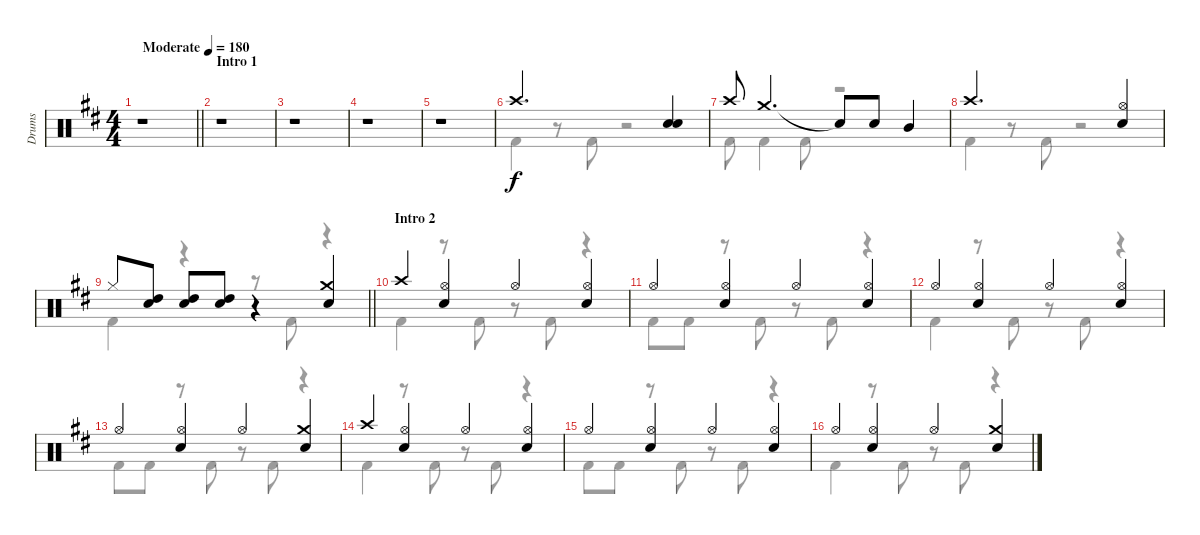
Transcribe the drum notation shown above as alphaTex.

\track ("Drums" "Drums") {instrument percussion}
\staff {score}
\articulation defaults
\voice
\ts (4 4)
\tempo (180 "Moderate")
\clef neutral
\barLineRight lightlight
\ks d
r.1{dy f} |
\section ("" "Intro 1")
r.1 |
r.1 |
r.1 |
r.1 |
"Crash high (hit)".2{d} ("Snare (hit) 2" "Snare (hit) 2").4 |
"Crash high (hit)".8 "Crash medium (hit)".4{d} "Snare (hit)"{t}.8 "Snare (hit) 2".8 "Mid Tom (hit)".4 |
"Crash high (hit)".2{d} ("Hi-Hat (open)" "Snare (hit) 2").4 |
\barLineRight lightlight "Hi-Hat (closed)".8
("High Tom (hit)" "Snare (hit) 2").8 ("High Tom (hit)" "Snare (hit) 2").8 ("High Tom (hit)" "Snare (hit) 2").8 r.4 ("Crash medium (hit)" "Snare (hit) 2").4 |
\section ("" "Intro 2")
"Crash high (hit)".4 ("Hi-Hat (open)" "Snare (hit) 2").4 "Hi-Hat (open)".4 ("Hi-Hat (open)" "Snare (hit) 2").4 |
"Hi-Hat (open)".4 ("Hi-Hat (open)" "Snare (hit) 2").4 "Hi-Hat (open)".4 ("Hi-Hat (open)" "Snare (hit) 2").4 |
"Hi-Hat (open)".4 ("Hi-Hat (open)" "Snare (hit) 2").4 "Hi-Hat (open)".4 ("Hi-Hat (open)" "Snare (hit) 2").4 |
"Hi-Hat (open)".4 ("Hi-Hat (open)" "Snare (hit) 2").4 "Hi-Hat (open)".4 ("Crash medium (hit)" "Snare (hit) 2").4 |
"Crash high (hit)".4 ("Hi-Hat (open)" "Snare (hit) 2").4 "Hi-Hat (open)".4 ("Hi-Hat (open)" "Snare (hit) 2").4 |
"Hi-Hat (open)".4 ("Hi-Hat (open)" "Snare (hit) 2").4 "Hi-Hat (open)".4 ("Hi-Hat (open)" "Snare (hit) 2").4 |
"Hi-Hat (open)".4 ("Hi-Hat (open)" "Snare (hit) 2").4 "Hi-Hat (open)".4 ("Crash medium (hit)" "Snare (hit) 2").4
\voice
\clef neutral
\ottava regular
\simile none
\barLineRight lightlight
\ks d
r.1{dy f} |
r.1 |
r.1 |
r.1 |
r.1 |
"Kick (hit) 2".4 r.8 "Kick (hit) 2".8 r.2 |
"Kick (hit) 2".8 "Kick (hit) 2".4 "Kick (hit) 2".8 r.2 |
"Kick (hit) 2".4 r.8 "Kick (hit) 2".8 r.2 |
\barLineRight lightlight "Kick (hit) 2".4
r.4 r.8 "Kick (hit) 2".8 r.4 |
"Kick (hit) 2".4 r.8 "Kick (hit) 2".8 r.8 "Kick (hit) 2".8 r.4 |
"Kick (hit) 2".8 "Kick (hit) 2".8 r.8 "Kick (hit) 2".8 r.8 "Kick (hit) 2".8 r.4 |
"Kick (hit) 2".4 r.8 "Kick (hit) 2".8 r.8 "Kick (hit) 2".8 r.4 |
"Kick (hit) 2".8 "Kick (hit) 2".8 r.8 "Kick (hit) 2".8 r.8 "Kick (hit) 2".8 r.4 |
"Kick (hit) 2".4 r.8 "Kick (hit) 2".8 r.8 "Kick (hit) 2".8 r.4 |
"Kick (hit) 2".8 "Kick (hit) 2".8 r.8 "Kick (hit) 2".8 r.8 "Kick (hit) 2".8 r.4 |
"Kick (hit) 2".4 r.8 "Kick (hit) 2".8 r.8 "Kick (hit) 2".8 r.4
